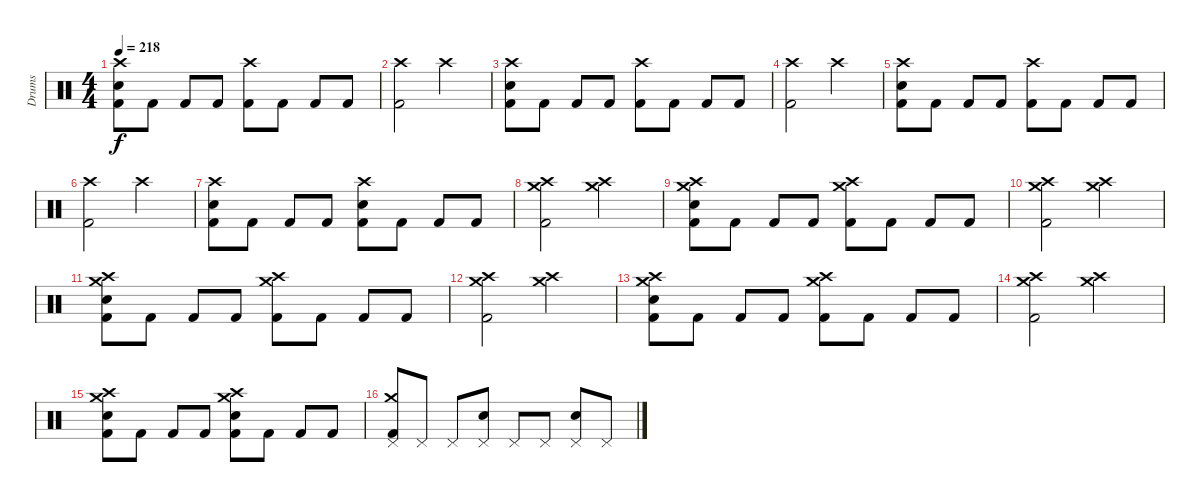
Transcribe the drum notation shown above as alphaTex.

\track ("Drums" "Drums") {instrument percussion}
\staff {score}
\articulation defaults
\ts (4 4)
\tempo 218
\clef neutral
\ks c
("Crash high (hit)" "Electric Snare (hit)" "Kick (hit) 2").8{dy f} "Kick (hit) 2".8 "Kick (hit) 2".8 "Kick (hit) 2".8 ("Crash high (hit)" "Kick (hit) 2").8 "Kick (hit) 2".8 "Kick (hit) 2".8 "Kick (hit) 2".8 |
("Crash high (hit)" "Kick (hit) 2").2 "Crash high (hit)".2 |
("Crash high (hit)" "Electric Snare (hit)" "Kick (hit) 2").8 "Kick (hit) 2".8 "Kick (hit) 2".8 "Kick (hit) 2".8 ("Crash high (hit)" "Kick (hit) 2").8 "Kick (hit) 2".8 "Kick (hit) 2".8 "Kick (hit) 2".8 |
("Crash high (hit)" "Kick (hit) 2").2 "Crash high (hit)".2 |
("Crash high (hit)" "Electric Snare (hit)" "Kick (hit) 2").8 "Kick (hit) 2".8 "Kick (hit) 2".8 "Kick (hit) 2".8 ("Crash high (hit)" "Kick (hit) 2").8 "Kick (hit) 2".8 "Kick (hit) 2".8 "Kick (hit) 2".8 |
("Crash high (hit)" "Kick (hit) 2").2 "Crash high (hit)".2 |
("Crash high (hit)" "Electric Snare (hit)" "Kick (hit) 2").8 "Kick (hit) 2".8 "Kick (hit) 2".8 "Kick (hit) 2".8 ("Crash high (hit)" "Electric Snare (hit)" "Kick (hit) 2").8 "Kick (hit) 2".8 "Kick (hit) 2".8 "Kick (hit) 2".8 |
("Crash high (hit)" "Crash medium (hit)" "Kick (hit) 2").2 ("Crash high (hit)" "Crash medium (hit)").2 |
("Crash high (hit)" "Crash medium (hit)" "Electric Snare (hit)" "Kick (hit) 2").8 "Kick (hit) 2".8 "Kick (hit) 2".8 "Kick (hit) 2".8 ("Crash high (hit)" "Crash medium (hit)" "Kick (hit) 2").8 "Kick (hit) 2".8 "Kick (hit) 2".8 "Kick (hit) 2".8 |
("Crash high (hit)" "Crash medium (hit)" "Kick (hit) 2").2 ("Crash high (hit)" "Crash medium (hit)").2 |
("Crash high (hit)" "Crash medium (hit)" "Electric Snare (hit)" "Kick (hit) 2").8 "Kick (hit) 2".8 "Kick (hit) 2".8 "Kick (hit) 2".8 ("Crash high (hit)" "Crash medium (hit)" "Kick (hit) 2").8 "Kick (hit) 2".8 "Kick (hit) 2".8 "Kick (hit) 2".8 |
("Crash high (hit)" "Crash medium (hit)" "Kick (hit) 2").2 ("Crash high (hit)" "Crash medium (hit)").2 |
("Crash high (hit)" "Crash medium (hit)" "Electric Snare (hit)" "Kick (hit) 2").8 "Kick (hit) 2".8 "Kick (hit) 2".8 "Kick (hit) 2".8 ("Crash high (hit)" "Crash medium (hit)" "Kick (hit) 2").8 "Kick (hit) 2".8 "Kick (hit) 2".8 "Kick (hit) 2".8 |
("Crash high (hit)" "Crash medium (hit)" "Kick (hit) 2").2 ("Crash high (hit)" "Crash medium (hit)").2 |
("Crash high (hit)" "Crash medium (hit)" "Electric Snare (hit)" "Kick (hit) 2").8 "Kick (hit) 2".8 "Kick (hit) 2".8 "Kick (hit) 2".8 ("Crash high (hit)" "Crash medium (hit)" "Electric Snare (hit)" "Kick (hit) 2").8 "Kick (hit) 2".8 "Kick (hit) 2".8 "Kick (hit) 2".8 |
("Crash medium (hit)" "Pedal Hi-Hat (hit)" "Kick (hit) 2").8 "Pedal Hi-Hat (hit)".8 "Pedal Hi-Hat (hit)".8 ("Pedal Hi-Hat (hit)" "Electric Snare (hit)").8 "Pedal Hi-Hat (hit)".8 "Pedal Hi-Hat (hit)".8 ("Pedal Hi-Hat (hit)" "Electric Snare (hit)").8 "Pedal Hi-Hat (hit)".8
